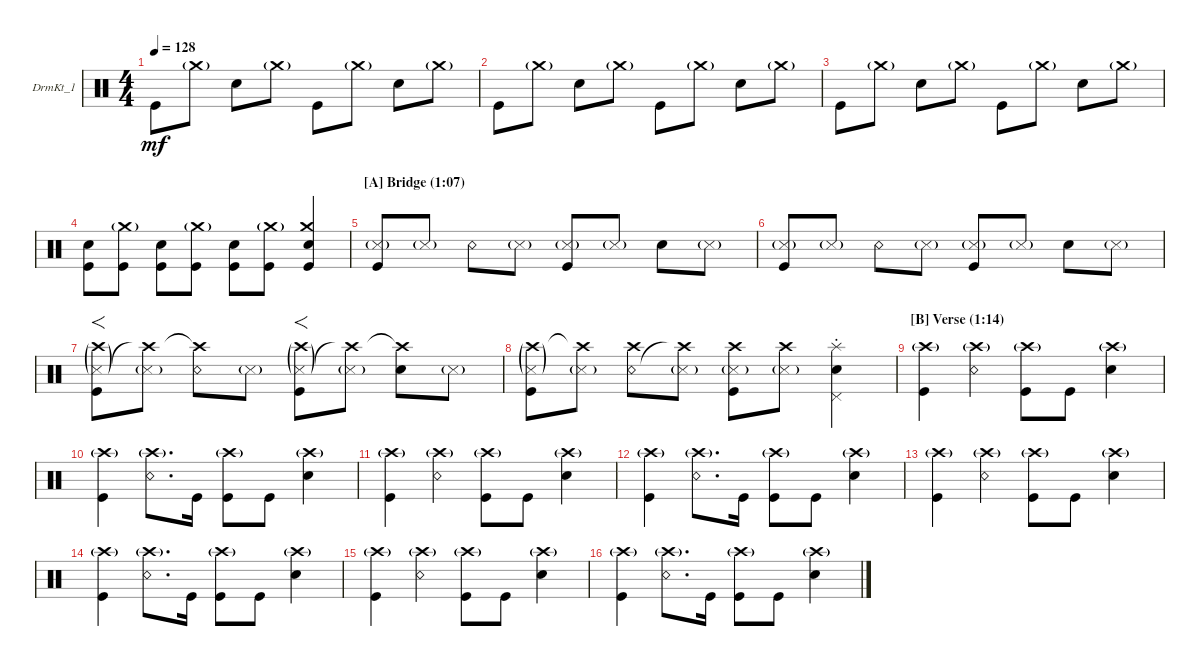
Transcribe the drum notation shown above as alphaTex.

\defaultSystemsLayout 4
\bracketExtendMode groupsimilarinstruments
\firstSystemTrackNameOrientation horizontal
\otherSystemsTrackNameOrientation horizontal
\track ("DrmKt_1" "DrmKt_1") {instrument percussion}
\staff {score}
\articulation defaults
\ts (4 4)
\tempo 128
\clef neutral
\ks c "Kick (hit)".8{dy mf} "Crash medium (hit)"{g}.8 "Snare (hit) 2".8 "Crash medium (hit)"{g}.8 "Kick (hit)".8 "Crash medium (hit)"{g}.8 "Snare (hit) 2".8 "Crash medium (hit)"{g}.8
|
"Kick (hit)".8 "Crash medium (hit)"{g}.8 "Snare (hit) 2".8 "Crash medium (hit)"{g}.8 "Kick (hit)".8 "Crash medium (hit)"{g}.8 "Snare (hit) 2".8 "Crash medium (hit)"{g}.8 |
"Kick (hit)".8 "Crash medium (hit)"{g}.8 "Snare (hit) 2".8 "Crash medium (hit)"{g}.8 "Kick (hit)".8 "Crash medium (hit)"{g}.8 "Snare (hit) 2".8 "Crash medium (hit)"{g}.8 |
("Kick (hit)" "Snare (hit) 2").8 ("Kick (hit)" "Crash medium (hit)"{g}).8 ("Kick (hit)" "Snare (hit) 2").8 ("Kick (hit)" "Crash medium (hit)"{g}).8 ("Kick (hit)" "Snare (hit) 2").8 ("Kick (hit)" "Crash medium (hit)"{g}).8 ("Kick (hit)" "Crash medium (hit)" "Snare (hit) 2").4 |
\section ("A" "Bridge (1:07)")
("Snare (side stick) 3"{g} "Kick (hit)").8 "Snare (side stick) 3"{g}.8 "Snare (rim shot)".8 "Snare (side stick) 3"{g}.8 ("Snare (side stick) 3"{g} "Kick (hit)").8 "Snare (side stick) 3"{g}.8 "Snare (hit) 2".8 "Snare (side stick) 3"{g}.8 |
("Snare (side stick) 3"{g} "Kick (hit)").8 "Snare (side stick) 3"{g}.8 "Snare (rim shot)".8 "Snare (side stick) 3"{g}.8 ("Snare (side stick) 3"{g} "Kick (hit)").8 "Snare (side stick) 3"{g}.8 "Snare (hit) 2".8 "Snare (side stick) 3"{g}.8 |
("Crash high (hit)"{g} "Snare (side stick) 3"{g} "Kick (hit)").8{f} ("Snare (side stick) 3"{g} "Crash high (hit)"{t}).8 ("Snare (rim shot)" "Crash high (hit)"{t}).8 "Snare (side stick) 3"{g}.8 ("Crash high (hit)"{g} "Snare (side stick) 3"{g} "Kick (hit)").8{f} ("Snare (side stick) 3"{g} "Crash high (hit)"{t}).8 ("Snare (hit) 2" "Crash high (hit)"{t}).8 "Snare (side stick) 3"{g}.8 |
("Crash high (hit)"{g} "Snare (side stick) 3"{g} "Kick (hit)").8 ("Crash high (hit)"{t} "Snare (side stick) 3"{g}).8 ("Snare (rim shot)" "Crash high (hit)").8 ("Crash high (hit)"{t} "Snare (side stick) 3"{g}).8 ("Crash high (hit)" "Snare (side stick) 3"{g} "Kick (hit)").8 ("Crash high (hit)" "Snare (side stick) 3"{g}).8 ("Snare (hit) 2" "Pedal Hi-Hat (hit)" "Splash (hit)"{st}).4 |
\section ("B" "Verse (1:14)")
("Kick (hit)" "Crash high (hit)"{g}).4 ("Snare (rim shot)" "Crash high (hit)"{g}).4 ("Kick (hit)" "Crash high (hit)"{g}).8 "Kick (hit)".8 ("Snare (hit) 2" "Crash high (hit)"{g}).4 |
("Kick (hit)" "Crash high (hit)"{g}).4 ("Snare (rim shot)" "Crash high (hit)"{g}).8{d} "Kick (hit)".16 ("Kick (hit)" "Crash high (hit)"{g}).8 "Kick (hit)".8 ("Snare (hit) 2" "Crash high (hit)"{g}).4 |
("Kick (hit)" "Crash high (hit)"{g}).4 ("Snare (rim shot)" "Crash high (hit)"{g}).4 ("Kick (hit)" "Crash high (hit)"{g}).8 "Kick (hit)".8 ("Snare (hit) 2" "Crash high (hit)"{g}).4 |
("Kick (hit)" "Crash high (hit)"{g}).4 ("Snare (rim shot)" "Crash high (hit)"{g}).8{d} "Kick (hit)".16 ("Kick (hit)" "Crash high (hit)"{g}).8 "Kick (hit)".8 ("Snare (hit) 2" "Crash high (hit)"{g}).4 |
("Kick (hit)" "Crash high (hit)"{g}).4 ("Snare (rim shot)" "Crash high (hit)"{g}).4 ("Kick (hit)" "Crash high (hit)"{g}).8 "Kick (hit)".8 ("Snare (hit) 2" "Crash high (hit)"{g}).4 |
("Kick (hit)" "Crash high (hit)"{g}).4 ("Snare (rim shot)" "Crash high (hit)"{g}).8{d} "Kick (hit)".16 ("Kick (hit)" "Crash high (hit)"{g}).8 "Kick (hit)".8 ("Snare (hit) 2" "Crash high (hit)"{g}).4 |
("Kick (hit)" "Crash high (hit)"{g}).4 ("Snare (rim shot)" "Crash high (hit)"{g}).4 ("Kick (hit)" "Crash high (hit)"{g}).8 "Kick (hit)".8 ("Snare (hit) 2" "Crash high (hit)"{g}).4 |
("Kick (hit)" "Crash high (hit)"{g}).4 ("Snare (rim shot)" "Crash high (hit)"{g}).8{d} "Kick (hit)".16 ("Kick (hit)" "Crash high (hit)"{g}).8 "Kick (hit)".8 ("Snare (hit) 2" "Crash high (hit)"{g}).4
